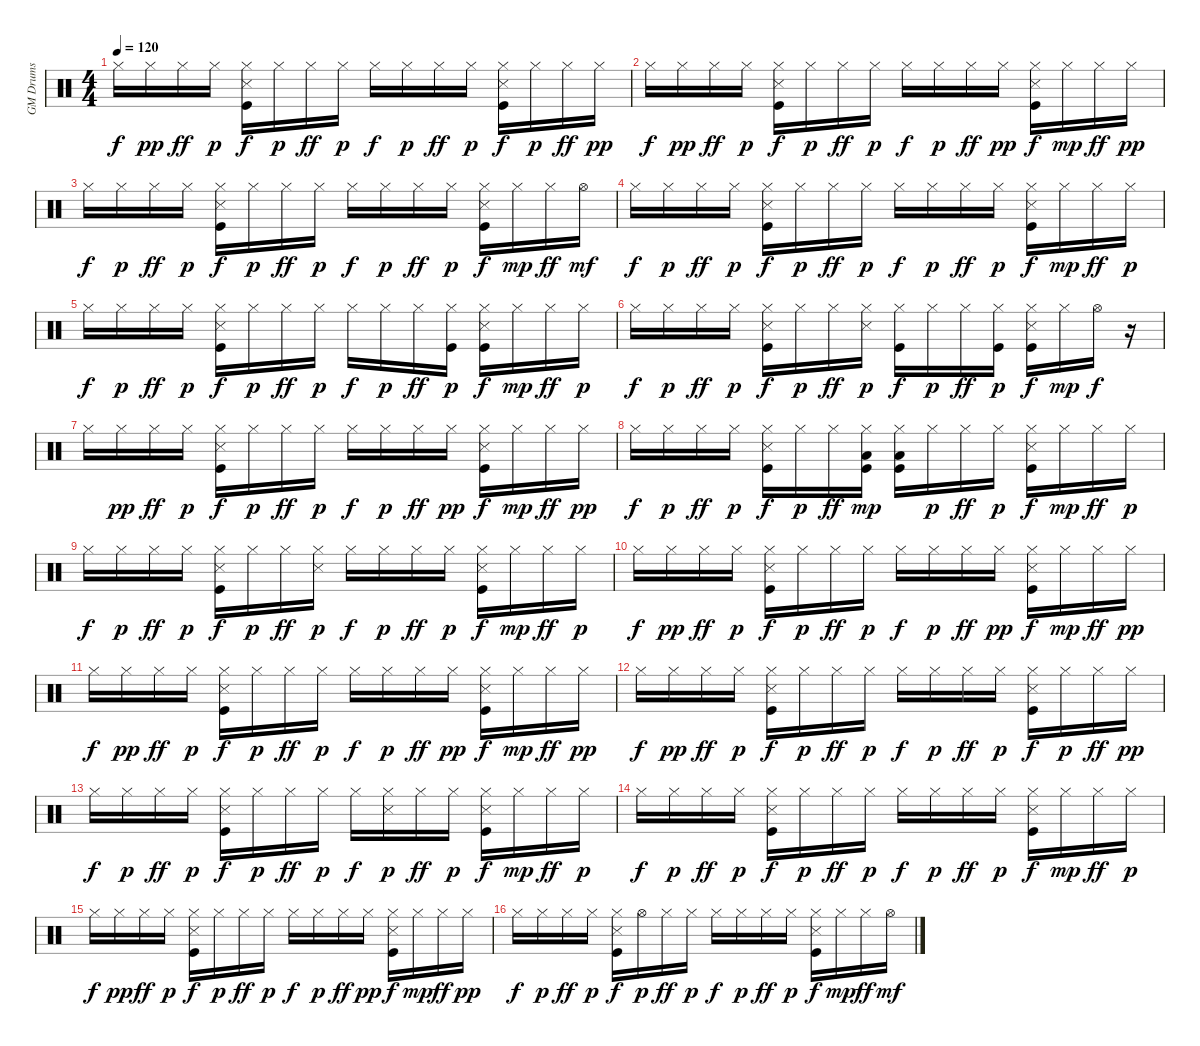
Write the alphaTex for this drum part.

\track ("GM Drums" "GM Drums") {instrument percussion}
\staff {score}
\articulation defaults
\ts (4 4)
\tempo 120
\clef neutral
\ks c "Hi-Hat (closed)".16{dy f} "Hi-Hat (closed)".16{dy pp} "Hi-Hat (closed)".16{dy ff} "Hi-Hat (closed)".16{dy p}
("Kick (hit)" "Snare (side stick) 3" "Hi-Hat (closed)").16{dy f} "Hi-Hat (closed)".16{dy p} "Hi-Hat (closed)".16{dy ff} "Hi-Hat (closed)".16{dy p} "Hi-Hat (closed)".16{dy f} "Hi-Hat (closed)".16{dy p} "Hi-Hat (closed)".16{dy ff} "Hi-Hat (closed)".16{dy p} ("Kick (hit)" "Snare (side stick) 3" "Hi-Hat (closed)").16{dy f} "Hi-Hat (closed)".16{dy p} "Hi-Hat (closed)".16{dy ff} "Hi-Hat (closed)".16{dy pp} |
"Hi-Hat (closed)".16{dy f} "Hi-Hat (closed)".16{dy pp} "Hi-Hat (closed)".16{dy ff} "Hi-Hat (closed)".16{dy p} ("Kick (hit)" "Snare (side stick) 3" "Hi-Hat (closed)").16{dy f} "Hi-Hat (closed)".16{dy p} "Hi-Hat (closed)".16{dy ff} "Hi-Hat (closed)".16{dy p} "Hi-Hat (closed)".16{dy f} "Hi-Hat (closed)".16{dy p} "Hi-Hat (closed)".16{dy ff} "Hi-Hat (closed)".16{dy pp} ("Kick (hit)" "Snare (side stick) 3" "Hi-Hat (closed)").16{dy f} "Hi-Hat (closed)".16{dy mp} "Hi-Hat (closed)".16{dy ff} "Hi-Hat (closed)".16{dy pp} |
"Hi-Hat (closed)".16{dy f} "Hi-Hat (closed)".16{dy p} "Hi-Hat (closed)".16{dy ff} "Hi-Hat (closed)".16{dy p} ("Kick (hit)" "Snare (side stick) 3" "Hi-Hat (closed)").16{dy f} "Hi-Hat (closed)".16{dy p} "Hi-Hat (closed)".16{dy ff} "Hi-Hat (closed)".16{dy p} "Hi-Hat (closed)".16{dy f} "Hi-Hat (closed)".16{dy p} "Hi-Hat (closed)".16{dy ff} "Hi-Hat (closed)".16{dy p} ("Kick (hit)" "Snare (side stick) 3" "Hi-Hat (closed)").16{dy f} "Hi-Hat (closed)".16{dy mp} "Hi-Hat (closed)".16{dy ff} "Hi-Hat (open)".16{dy mf} |
"Hi-Hat (closed)".16{dy f} "Hi-Hat (closed)".16{dy p} "Hi-Hat (closed)".16{dy ff} "Hi-Hat (closed)".16{dy p} ("Kick (hit)" "Snare (side stick) 3" "Hi-Hat (closed)").16{dy f} "Hi-Hat (closed)".16{dy p} "Hi-Hat (closed)".16{dy ff} "Hi-Hat (closed)".16{dy p} "Hi-Hat (closed)".16{dy f} "Hi-Hat (closed)".16{dy p} "Hi-Hat (closed)".16{dy ff} "Hi-Hat (closed)".16{dy p} ("Kick (hit)" "Snare (side stick) 3" "Hi-Hat (closed)").16{dy f} "Hi-Hat (closed)".16{dy mp} "Hi-Hat (closed)".16{dy ff} "Hi-Hat (closed)".16{dy p} |
"Hi-Hat (closed)".16{dy f} "Hi-Hat (closed)".16{dy p} "Hi-Hat (closed)".16{dy ff} "Hi-Hat (closed)".16{dy p} ("Kick (hit)" "Snare (side stick) 3" "Hi-Hat (closed)").16{dy f} "Hi-Hat (closed)".16{dy p} "Hi-Hat (closed)".16{dy ff} "Hi-Hat (closed)".16{dy p} "Hi-Hat (closed)".16{dy f} "Hi-Hat (closed)".16{dy p} "Hi-Hat (closed)".16{dy ff} ("Kick (hit)" "Hi-Hat (closed)").16{dy p} ("Kick (hit)" "Snare (side stick) 3" "Hi-Hat (closed)").16{dy f} "Hi-Hat (closed)".16{dy mp} "Hi-Hat (closed)".16{dy ff} "Hi-Hat (closed)".16{dy p} |
"Hi-Hat (closed)".16{dy f} "Hi-Hat (closed)".16{dy p} "Hi-Hat (closed)".16{dy ff} "Hi-Hat (closed)".16{dy p} ("Kick (hit)" "Snare (side stick) 3" "Hi-Hat (closed)").16{dy f} "Hi-Hat (closed)".16{dy p} "Hi-Hat (closed)".16{dy ff} ("Snare (side stick) 3" "Hi-Hat (closed)").16{dy p} ("Kick (hit)" "Hi-Hat (closed)").16{dy f} "Hi-Hat (closed)".16{dy p} "Hi-Hat (closed)".16{dy ff} ("Kick (hit)" "Hi-Hat (closed)").16{dy p} ("Kick (hit)" "Snare (side stick) 3" "Hi-Hat (closed)").16{dy f} "Hi-Hat (closed)".16{dy mp} "Hi-Hat (open)".16{dy f} r.16 |
"Hi-Hat (closed)".16 "Hi-Hat (closed)".16{dy pp} "Hi-Hat (closed)".16{dy ff} "Hi-Hat (closed)".16{dy p} ("Kick (hit)" "Snare (side stick) 3" "Hi-Hat (closed)").16{dy f} "Hi-Hat (closed)".16{dy p} "Hi-Hat (closed)".16{dy ff} "Hi-Hat (closed)".16{dy p} "Hi-Hat (closed)".16{dy f} "Hi-Hat (closed)".16{dy p} "Hi-Hat (closed)".16{dy ff} "Hi-Hat (closed)".16{dy pp} ("Kick (hit)" "Snare (side stick) 3" "Hi-Hat (closed)").16{dy f} "Hi-Hat (closed)".16{dy mp} "Hi-Hat (closed)".16{dy ff} "Hi-Hat (closed)".16{dy pp} |
"Hi-Hat (closed)".16{dy f} "Hi-Hat (closed)".16{dy p} "Hi-Hat (closed)".16{dy ff} "Hi-Hat (closed)".16{dy p} ("Kick (hit)" "Snare (side stick) 3" "Hi-Hat (closed)").16{dy f} "Hi-Hat (closed)".16{dy p} "Hi-Hat (closed)".16{dy ff} ("Kick (hit)" "Hi-Hat (closed)" "Low Tom (hit)").16{dy mp} ("Kick (hit)" "Hi-Hat (closed)" "Low Tom (hit)").16 "Hi-Hat (closed)".16{dy p} "Hi-Hat (closed)".16{dy ff} "Hi-Hat (closed)".16{dy p} ("Kick (hit)" "Snare (side stick) 3" "Hi-Hat (closed)").16{dy f} "Hi-Hat (closed)".16{dy mp} "Hi-Hat (closed)".16{dy ff} "Hi-Hat (closed)".16{dy p} |
"Hi-Hat (closed)".16{dy f} "Hi-Hat (closed)".16{dy p} "Hi-Hat (closed)".16{dy ff} "Hi-Hat (closed)".16{dy p} ("Kick (hit)" "Snare (side stick) 3" "Hi-Hat (closed)").16{dy f} "Hi-Hat (closed)".16{dy p} "Hi-Hat (closed)".16{dy ff} ("Snare (side stick) 3" "Hi-Hat (closed)").16{dy p} "Hi-Hat (closed)".16{dy f} "Hi-Hat (closed)".16{dy p} "Hi-Hat (closed)".16{dy ff} "Hi-Hat (closed)".16{dy p} ("Kick (hit)" "Snare (side stick) 3" "Hi-Hat (closed)").16{dy f} "Hi-Hat (closed)".16{dy mp} "Hi-Hat (closed)".16{dy ff} "Hi-Hat (closed)".16{dy p} |
"Hi-Hat (closed)".16{dy f} "Hi-Hat (closed)".16{dy pp} "Hi-Hat (closed)".16{dy ff} "Hi-Hat (closed)".16{dy p} ("Kick (hit)" "Snare (side stick) 3" "Hi-Hat (closed)").16{dy f} "Hi-Hat (closed)".16{dy p} "Hi-Hat (closed)".16{dy ff} "Hi-Hat (closed)".16{dy p} "Hi-Hat (closed)".16{dy f} "Hi-Hat (closed)".16{dy p} "Hi-Hat (closed)".16{dy ff} "Hi-Hat (closed)".16{dy pp} ("Kick (hit)" "Snare (side stick) 3" "Hi-Hat (closed)").16{dy f} "Hi-Hat (closed)".16{dy mp} "Hi-Hat (closed)".16{dy ff} "Hi-Hat (closed)".16{dy pp} |
"Hi-Hat (closed)".16{dy f} "Hi-Hat (closed)".16{dy pp} "Hi-Hat (closed)".16{dy ff} "Hi-Hat (closed)".16{dy p} ("Kick (hit)" "Snare (side stick) 3" "Hi-Hat (closed)").16{dy f} "Hi-Hat (closed)".16{dy p} "Hi-Hat (closed)".16{dy ff} "Hi-Hat (closed)".16{dy p} "Hi-Hat (closed)".16{dy f} "Hi-Hat (closed)".16{dy p} "Hi-Hat (closed)".16{dy ff} "Hi-Hat (closed)".16{dy pp} ("Kick (hit)" "Snare (side stick) 3" "Hi-Hat (closed)").16{dy f} "Hi-Hat (closed)".16{dy mp} "Hi-Hat (closed)".16{dy ff} "Hi-Hat (closed)".16{dy pp} |
"Hi-Hat (closed)".16{dy f} "Hi-Hat (closed)".16{dy pp} "Hi-Hat (closed)".16{dy ff} "Hi-Hat (closed)".16{dy p} ("Kick (hit)" "Snare (side stick) 3" "Hi-Hat (closed)").16{dy f} "Hi-Hat (closed)".16{dy p} "Hi-Hat (closed)".16{dy ff} "Hi-Hat (closed)".16{dy p} "Hi-Hat (closed)".16{dy f} "Hi-Hat (closed)".16{dy p} "Hi-Hat (closed)".16{dy ff} "Hi-Hat (closed)".16{dy p} ("Kick (hit)" "Snare (side stick) 3" "Hi-Hat (closed)").16{dy f} "Hi-Hat (closed)".16{dy p} "Hi-Hat (closed)".16{dy ff} "Hi-Hat (closed)".16{dy pp} |
"Hi-Hat (closed)".16{dy f} "Hi-Hat (closed)".16{dy p} "Hi-Hat (closed)".16{dy ff} "Hi-Hat (closed)".16{dy p} ("Kick (hit)" "Snare (side stick) 3" "Hi-Hat (closed)").16{dy f} "Hi-Hat (closed)".16{dy p} "Hi-Hat (closed)".16{dy ff} "Hi-Hat (closed)".16{dy p} "Hi-Hat (closed)".16{dy f} ("Snare (side stick) 3" "Hi-Hat (closed)").16{dy p} "Hi-Hat (closed)".16{dy ff} "Hi-Hat (closed)".16{dy p} ("Kick (hit)" "Snare (side stick) 3" "Hi-Hat (closed)").16{dy f} "Hi-Hat (closed)".16{dy mp} "Hi-Hat (closed)".16{dy ff} "Hi-Hat (closed)".16{dy p} |
"Hi-Hat (closed)".16{dy f} "Hi-Hat (closed)".16{dy p} "Hi-Hat (closed)".16{dy ff} "Hi-Hat (closed)".16{dy p} ("Kick (hit)" "Snare (side stick) 3" "Hi-Hat (closed)").16{dy f} "Hi-Hat (closed)".16{dy p} "Hi-Hat (closed)".16{dy ff} "Hi-Hat (closed)".16{dy p} "Hi-Hat (closed)".16{dy f} "Hi-Hat (closed)".16{dy p} "Hi-Hat (closed)".16{dy ff} "Hi-Hat (closed)".16{dy p} ("Kick (hit)" "Snare (side stick) 3" "Hi-Hat (closed)").16{dy f} "Hi-Hat (closed)".16{dy mp} "Hi-Hat (closed)".16{dy ff} "Hi-Hat (closed)".16{dy p} |
"Hi-Hat (closed)".16{dy f} "Hi-Hat (closed)".16{dy pp} "Hi-Hat (closed)".16{dy ff} "Hi-Hat (closed)".16{dy p} ("Kick (hit)" "Snare (side stick) 3" "Hi-Hat (closed)").16{dy f} "Hi-Hat (closed)".16{dy p} "Hi-Hat (closed)".16{dy ff} "Hi-Hat (closed)".16{dy p} "Hi-Hat (closed)".16{dy f} "Hi-Hat (closed)".16{dy p} "Hi-Hat (closed)".16{dy ff} "Hi-Hat (closed)".16{dy pp} ("Kick (hit)" "Snare (side stick) 3" "Hi-Hat (closed)").16{dy f} "Hi-Hat (closed)".16{dy mp} "Hi-Hat (closed)".16{dy ff} "Hi-Hat (closed)".16{dy pp} |
"Hi-Hat (closed)".16{dy f} "Hi-Hat (closed)".16{dy p} "Hi-Hat (closed)".16{dy ff} "Hi-Hat (closed)".16{dy p} ("Kick (hit)" "Snare (side stick) 3" "Hi-Hat (closed)").16{dy f} "Hi-Hat (open)".16{dy p} "Hi-Hat (closed)".16{dy ff} "Hi-Hat (closed)".16{dy p} "Hi-Hat (closed)".16{dy f} "Hi-Hat (closed)".16{dy p} "Hi-Hat (closed)".16{dy ff} "Hi-Hat (closed)".16{dy p} ("Kick (hit)" "Snare (side stick) 3" "Hi-Hat (closed)").16{dy f} "Hi-Hat (closed)".16{dy mp} "Hi-Hat (closed)".16{dy ff} "Hi-Hat (open)".16{dy mf}
